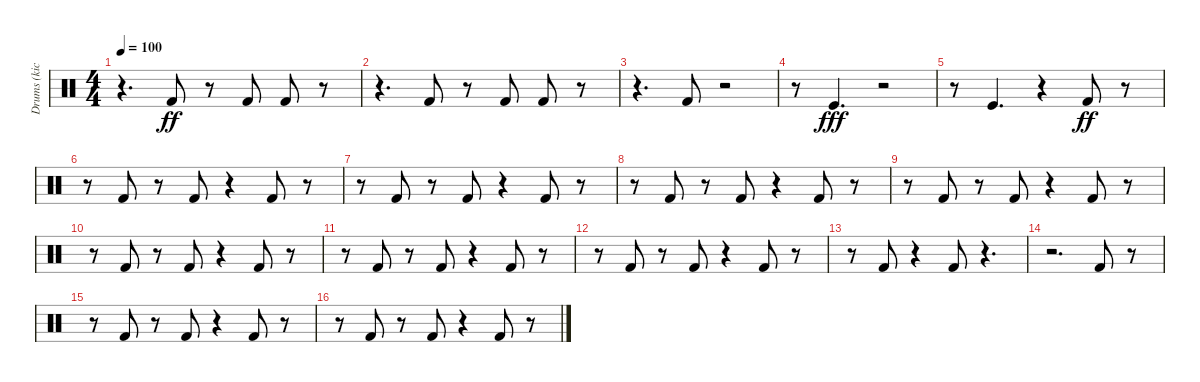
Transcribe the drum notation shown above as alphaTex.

\track ("Drums (kick)" "Drums (kic") {instrument percussion}
\staff {score}
\articulation defaults
\ts (4 4)
\tempo 100
\clef neutral
\ks c
r.4{d dy ff} "Kick (hit) 2".8 r.8 "Kick (hit) 2".8 "Kick (hit) 2".8 r.8 |
r.4{d} "Kick (hit) 2".8 r.8 "Kick (hit) 2".8 "Kick (hit) 2".8 r.8 |
r.4{d} "Kick (hit) 2".8 r.2 |
r.8 "Kick (hit)".4{d dy fff} r.2 |
r.8 "Kick (hit)".4{d} r.4 "Kick (hit) 2".8{dy ff} r.8 |
r.8 "Kick (hit) 2".8 r.8 "Kick (hit) 2".8 r.4 "Kick (hit) 2".8 r.8 |
r.8 "Kick (hit) 2".8 r.8 "Kick (hit) 2".8 r.4 "Kick (hit) 2".8 r.8 |
r.8 "Kick (hit) 2".8 r.8 "Kick (hit) 2".8 r.4 "Kick (hit) 2".8 r.8 |
r.8 "Kick (hit) 2".8 r.8 "Kick (hit) 2".8 r.4 "Kick (hit) 2".8 r.8 |
r.8 "Kick (hit) 2".8 r.8 "Kick (hit) 2".8 r.4 "Kick (hit) 2".8 r.8 |
r.8 "Kick (hit) 2".8 r.8 "Kick (hit) 2".8 r.4 "Kick (hit) 2".8 r.8 |
r.8 "Kick (hit) 2".8 r.8 "Kick (hit) 2".8 r.4 "Kick (hit) 2".8 r.8 |
r.8 "Kick (hit) 2".8 r.4 "Kick (hit) 2".8 r.4{d} |
r.2{d} "Kick (hit) 2".8 r.8 |
r.8 "Kick (hit) 2".8 r.8 "Kick (hit) 2".8 r.4 "Kick (hit) 2".8 r.8 |
r.8 "Kick (hit) 2".8 r.8 "Kick (hit) 2".8 r.4 "Kick (hit) 2".8 r.8
